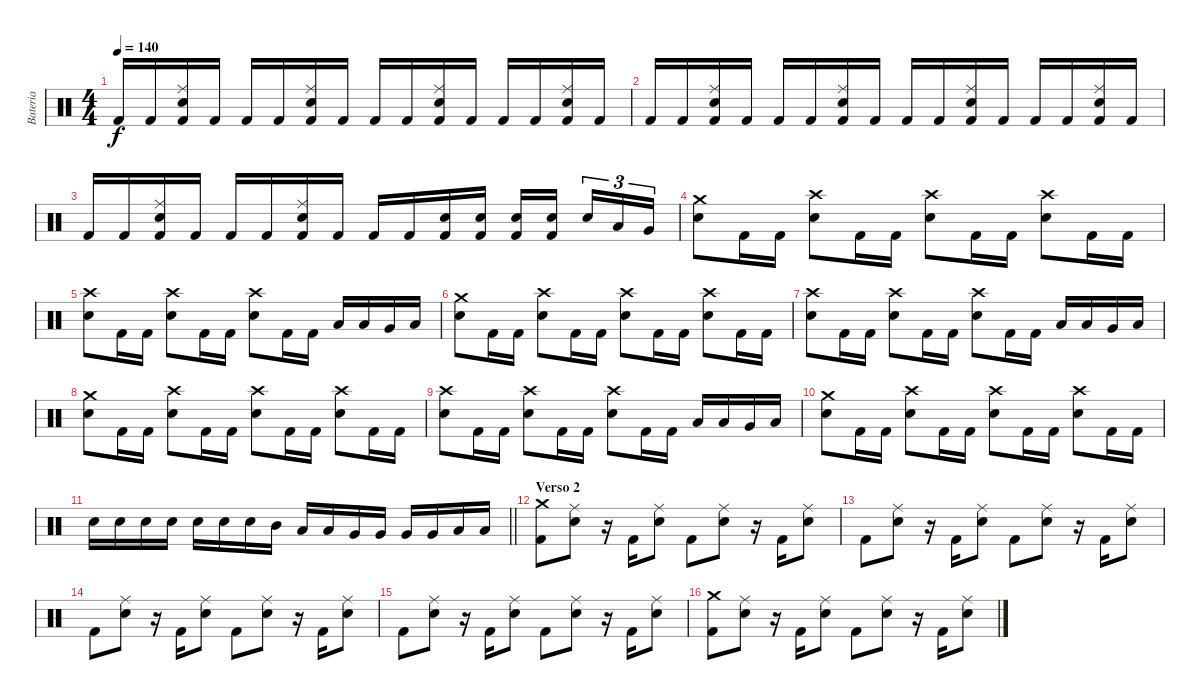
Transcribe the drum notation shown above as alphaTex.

\track ("Bateria" "Bateria") {instrument percussion}
\staff {score}
\articulation defaults
\ts (4 4)
\tempo 140
\clef neutral
\ks c "Kick (hit) 2".16{dy f} "Kick (hit) 2".16
("Ride (middle)" "Snare (hit) 2" "Kick (hit) 2").16 "Kick (hit) 2".16 "Kick (hit) 2".16 "Kick (hit) 2".16 ("Ride (middle)" "Snare (hit) 2" "Kick (hit) 2").16 "Kick (hit) 2".16 "Kick (hit) 2".16 "Kick (hit) 2".16 ("Ride (middle)" "Snare (hit) 2" "Kick (hit) 2").16 "Kick (hit) 2".16 "Kick (hit) 2".16 "Kick (hit) 2".16 ("Ride (middle)" "Snare (hit) 2" "Kick (hit) 2").16 "Kick (hit) 2".16 |
"Kick (hit) 2".16 "Kick (hit) 2".16 ("Ride (middle)" "Snare (hit) 2" "Kick (hit) 2").16 "Kick (hit) 2".16 "Kick (hit) 2".16 "Kick (hit) 2".16 ("Ride (middle)" "Snare (hit) 2" "Kick (hit) 2").16 "Kick (hit) 2".16 "Kick (hit) 2".16 "Kick (hit) 2".16 ("Ride (middle)" "Snare (hit) 2" "Kick (hit) 2").16 "Kick (hit) 2".16 "Kick (hit) 2".16 "Kick (hit) 2".16 ("Ride (middle)" "Snare (hit) 2" "Kick (hit) 2").16 "Kick (hit) 2".16 |
"Kick (hit) 2".16 "Kick (hit) 2".16 ("Ride (middle)" "Snare (hit) 2" "Kick (hit) 2").16 "Kick (hit) 2".16 "Kick (hit) 2".16 "Kick (hit) 2".16 ("Ride (middle)" "Snare (hit) 2" "Kick (hit) 2").16 "Kick (hit) 2".16 "Kick (hit) 2".16 "Kick (hit) 2".16 ("Snare (hit) 2" "Kick (hit) 2").16 ("Snare (hit) 2" "Kick (hit) 2").16 ("Snare (hit) 2" "Kick (hit) 2").16 ("Snare (hit) 2" "Kick (hit) 2").16{beam splitsecondary} "Snare (hit) 2".16{tu (3 2)} "Low Tom (hit)".16{tu (3 2)} "Very Low Tom (hit)".16{tu (3 2)} |
("Crash medium (hit)" "Snare (hit) 2").8 "Kick (hit) 2".16 "Kick (hit) 2".16 ("Crash high (hit)" "Snare (hit) 2").8 "Kick (hit) 2".16 "Kick (hit) 2".16 ("Crash high (hit)" "Snare (hit) 2").8 "Kick (hit) 2".16 "Kick (hit) 2".16 ("Crash high (hit)" "Snare (hit) 2").8 "Kick (hit) 2".16 "Kick (hit) 2".16 |
("Crash high (hit)" "Snare (hit) 2").8 "Kick (hit) 2".16 "Kick (hit) 2".16 ("Crash high (hit)" "Snare (hit) 2").8 "Kick (hit) 2".16 "Kick (hit) 2".16 ("Crash high (hit)" "Snare (hit) 2").8 "Kick (hit) 2".16 "Kick (hit) 2".16 "Low Tom (hit)".16 "Low Tom (hit)".16 "Very Low Tom (hit)".16 "Low Floor Tom (hit)".16 |
("Crash medium (hit)" "Snare (hit) 2").8 "Kick (hit) 2".16 "Kick (hit) 2".16 ("Crash high (hit)" "Snare (hit) 2").8 "Kick (hit) 2".16 "Kick (hit) 2".16 ("Crash high (hit)" "Snare (hit) 2").8 "Kick (hit) 2".16 "Kick (hit) 2".16 ("Crash high (hit)" "Snare (hit) 2").8 "Kick (hit) 2".16 "Kick (hit) 2".16 |
("Crash high (hit)" "Snare (hit) 2").8 "Kick (hit) 2".16 "Kick (hit) 2".16 ("Crash high (hit)" "Snare (hit) 2").8 "Kick (hit) 2".16 "Kick (hit) 2".16 ("Crash high (hit)" "Snare (hit) 2").8 "Kick (hit) 2".16 "Kick (hit) 2".16 "Low Tom (hit)".16 "Low Tom (hit)".16 "Very Low Tom (hit)".16 "Low Floor Tom (hit)".16 |
("Crash medium (hit)" "Snare (hit) 2").8 "Kick (hit) 2".16 "Kick (hit) 2".16 ("Crash high (hit)" "Snare (hit) 2").8 "Kick (hit) 2".16 "Kick (hit) 2".16 ("Crash high (hit)" "Snare (hit) 2").8 "Kick (hit) 2".16 "Kick (hit) 2".16 ("Crash high (hit)" "Snare (hit) 2").8 "Kick (hit) 2".16 "Kick (hit) 2".16 |
("Crash high (hit)" "Snare (hit) 2").8 "Kick (hit) 2".16 "Kick (hit) 2".16 ("Crash high (hit)" "Snare (hit) 2").8 "Kick (hit) 2".16 "Kick (hit) 2".16 ("Crash high (hit)" "Snare (hit) 2").8 "Kick (hit) 2".16 "Kick (hit) 2".16 "Low Tom (hit)".16 "Low Tom (hit)".16 "Very Low Tom (hit)".16 "Low Floor Tom (hit)".16 |
("Crash medium (hit)" "Snare (hit) 2").8 "Kick (hit) 2".16 "Kick (hit) 2".16 ("Crash high (hit)" "Snare (hit) 2").8 "Kick (hit) 2".16 "Kick (hit) 2".16 ("Crash high (hit)" "Snare (hit) 2").8 "Kick (hit) 2".16 "Kick (hit) 2".16 ("Crash high (hit)" "Snare (hit) 2").8 "Kick (hit) 2".16 "Kick (hit) 2".16 |
\barLineRight lightlight "Snare (hit) 2".16 "Snare (hit) 2".16 "Snare (hit) 2".16 "Snare (hit) 2".16 "Snare (hit) 2".16 "Snare (hit) 2".16 "Snare (hit) 2".16 "Mid Tom (hit)".16 "Low Tom (hit)".16 "Low Tom (hit)".16 "Very Low Tom (hit)".16 "Very Low Tom (hit)".16 "Very Low Tom (hit)".16 "Very Low Tom (hit)".16 "Low Floor Tom (hit)".16 "Low Floor Tom (hit)".16
|
\section ("" "Verso 2")
("Crash medium (hit)" "Kick (hit) 2").8 ("Ride (middle)" "Snare (hit) 2").8 r.16 "Kick (hit) 2".16 ("Ride (middle)" "Snare (hit) 2").8 "Kick (hit) 2".8 ("Ride (middle)" "Snare (hit) 2").8 r.16 "Kick (hit) 2".16 ("Ride (middle)" "Snare (hit) 2").8 |
"Kick (hit) 2".8 ("Ride (middle)" "Snare (hit) 2").8 r.16 "Kick (hit) 2".16 ("Ride (middle)" "Snare (hit) 2").8 "Kick (hit) 2".8 ("Ride (middle)" "Snare (hit) 2").8 r.16 "Kick (hit) 2".16 ("Ride (middle)" "Snare (hit) 2").8 |
"Kick (hit) 2".8 ("Ride (middle)" "Snare (hit) 2").8 r.16 "Kick (hit) 2".16 ("Ride (middle)" "Snare (hit) 2").8 "Kick (hit) 2".8 ("Ride (middle)" "Snare (hit) 2").8 r.16 "Kick (hit) 2".16 ("Ride (middle)" "Snare (hit) 2").8 |
"Kick (hit) 2".8 ("Ride (middle)" "Snare (hit) 2").8 r.16 "Kick (hit) 2".16 ("Ride (middle)" "Snare (hit) 2").8 "Kick (hit) 2".8 ("Ride (middle)" "Snare (hit) 2").8 r.16 "Kick (hit) 2".16 ("Ride (middle)" "Snare (hit) 2").8 |
("Crash medium (hit)" "Kick (hit) 2").8 ("Ride (middle)" "Snare (hit) 2").8 r.16 "Kick (hit) 2".16 ("Ride (middle)" "Snare (hit) 2").8 "Kick (hit) 2".8 ("Ride (middle)" "Snare (hit) 2").8 r.16 "Kick (hit) 2".16 ("Ride (middle)" "Snare (hit) 2").8
